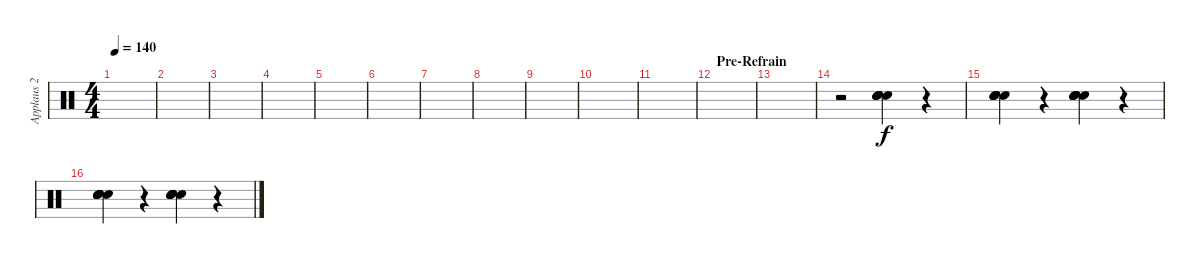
\track ("Applaus 2" "Applaus 2") {instrument percussion}
\staff {score}
\articulation defaults
\ts (4 4)
\tempo 140
\clef neutral
\ks c
|
|
|
|
|
|
|
|
|
|
|
\section ("" "Pre-Refrain")
|
|
r.2 ("Hand Clap (hit)" "Hand Clap (hit)" "Hand Clap (hit)" "Hand Clap (hit)" "Hand Clap (hit)").4{bd 60} r.4 |
("Hand Clap (hit)" "Hand Clap (hit)" "Hand Clap (hit)" "Hand Clap (hit)" "Hand Clap (hit)" "Hand Clap (hit)").4{bd 60} r.4 ("Hand Clap (hit)" "Hand Clap (hit)" "Hand Clap (hit)" "Hand Clap (hit)" "Hand Clap (hit)" "Hand Clap (hit)").4{bd 60} r.4 |
("Hand Clap (hit)" "Hand Clap (hit)" "Hand Clap (hit)" "Hand Clap (hit)" "Hand Clap (hit)" "Hand Clap (hit)").4{bd 60} r.4 ("Hand Clap (hit)" "Hand Clap (hit)" "Hand Clap (hit)" "Hand Clap (hit)" "Hand Clap (hit)" "Hand Clap (hit)").4{bd 60} r.4
